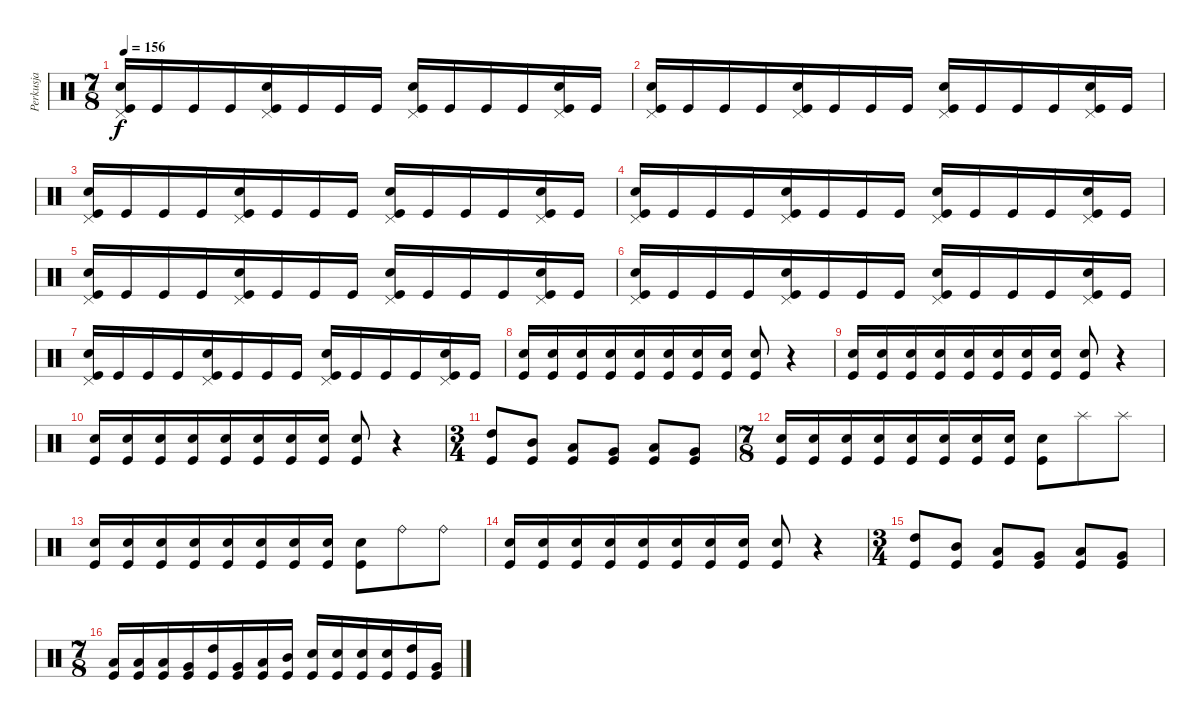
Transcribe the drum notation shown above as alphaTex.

\track ("Perkusja" "Perkusja") {instrument percussion}
\staff {score}
\articulation defaults
\ts (7 8)
\tempo 156
\clef neutral
\ks c
("Pedal Hi-Hat (hit)" "Snare (hit) 2" "Kick (hit)").16{dy f} "Kick (hit)".16 "Kick (hit)".16 "Kick (hit)".16 ("Pedal Hi-Hat (hit)" "Snare (hit) 2" "Kick (hit)").16 "Kick (hit)".16 "Kick (hit)".16 "Kick (hit)".16 ("Pedal Hi-Hat (hit)" "Snare (hit) 2" "Kick (hit)").16 "Kick (hit)".16 "Kick (hit)".16 "Kick (hit)".16 ("Pedal Hi-Hat (hit)" "Snare (hit) 2" "Kick (hit)").16 "Kick (hit)".16 |
("Pedal Hi-Hat (hit)" "Snare (hit) 2" "Kick (hit)").16 "Kick (hit)".16 "Kick (hit)".16 "Kick (hit)".16 ("Pedal Hi-Hat (hit)" "Snare (hit) 2" "Kick (hit)").16 "Kick (hit)".16 "Kick (hit)".16 "Kick (hit)".16 ("Pedal Hi-Hat (hit)" "Snare (hit) 2" "Kick (hit)").16 "Kick (hit)".16 "Kick (hit)".16 "Kick (hit)".16 ("Pedal Hi-Hat (hit)" "Snare (hit) 2" "Kick (hit)").16 "Kick (hit)".16 |
("Pedal Hi-Hat (hit)" "Snare (hit) 2" "Kick (hit)").16 "Kick (hit)".16 "Kick (hit)".16 "Kick (hit)".16 ("Pedal Hi-Hat (hit)" "Snare (hit) 2" "Kick (hit)").16 "Kick (hit)".16 "Kick (hit)".16 "Kick (hit)".16 ("Pedal Hi-Hat (hit)" "Snare (hit) 2" "Kick (hit)").16 "Kick (hit)".16 "Kick (hit)".16 "Kick (hit)".16 ("Pedal Hi-Hat (hit)" "Snare (hit) 2" "Kick (hit)").16 "Kick (hit)".16 |
("Pedal Hi-Hat (hit)" "Snare (hit) 2" "Kick (hit)").16 "Kick (hit)".16 "Kick (hit)".16 "Kick (hit)".16 ("Pedal Hi-Hat (hit)" "Snare (hit) 2" "Kick (hit)").16 "Kick (hit)".16 "Kick (hit)".16 "Kick (hit)".16 ("Pedal Hi-Hat (hit)" "Snare (hit) 2" "Kick (hit)").16 "Kick (hit)".16 "Kick (hit)".16 "Kick (hit)".16 ("Pedal Hi-Hat (hit)" "Snare (hit) 2" "Kick (hit)").16 "Kick (hit)".16 |
("Pedal Hi-Hat (hit)" "Snare (hit) 2" "Kick (hit)").16 "Kick (hit)".16 "Kick (hit)".16 "Kick (hit)".16 ("Pedal Hi-Hat (hit)" "Snare (hit) 2" "Kick (hit)").16 "Kick (hit)".16 "Kick (hit)".16 "Kick (hit)".16 ("Pedal Hi-Hat (hit)" "Snare (hit) 2" "Kick (hit)").16 "Kick (hit)".16 "Kick (hit)".16 "Kick (hit)".16 ("Pedal Hi-Hat (hit)" "Snare (hit) 2" "Kick (hit)").16 "Kick (hit)".16 |
("Pedal Hi-Hat (hit)" "Snare (hit) 2" "Kick (hit)").16 "Kick (hit)".16 "Kick (hit)".16 "Kick (hit)".16 ("Pedal Hi-Hat (hit)" "Snare (hit) 2" "Kick (hit)").16 "Kick (hit)".16 "Kick (hit)".16 "Kick (hit)".16 ("Pedal Hi-Hat (hit)" "Snare (hit) 2" "Kick (hit)").16 "Kick (hit)".16 "Kick (hit)".16 "Kick (hit)".16 ("Pedal Hi-Hat (hit)" "Snare (hit) 2" "Kick (hit)").16 "Kick (hit)".16 |
("Pedal Hi-Hat (hit)" "Snare (hit) 2" "Kick (hit)").16 "Kick (hit)".16 "Kick (hit)".16 "Kick (hit)".16 ("Pedal Hi-Hat (hit)" "Snare (hit) 2" "Kick (hit)").16 "Kick (hit)".16 "Kick (hit)".16 "Kick (hit)".16 ("Pedal Hi-Hat (hit)" "Snare (hit) 2" "Kick (hit)").16 "Kick (hit)".16 "Kick (hit)".16 "Kick (hit)".16 ("Pedal Hi-Hat (hit)" "Snare (hit) 2" "Kick (hit)").16 "Kick (hit)".16 |
("Snare (hit) 2" "Kick (hit)").16 ("Snare (hit) 2" "Kick (hit)").16 ("Snare (hit) 2" "Kick (hit)").16 ("Snare (hit) 2" "Kick (hit)").16 ("Snare (hit) 2" "Kick (hit)").16 ("Snare (hit) 2" "Kick (hit)").16 ("Snare (hit) 2" "Kick (hit)").16 ("Snare (hit) 2" "Kick (hit)").16 ("Snare (hit) 2" "Kick (hit)").8 r.4 |
("Snare (hit) 2" "Kick (hit)").16 ("Snare (hit) 2" "Kick (hit)").16 ("Snare (hit) 2" "Kick (hit)").16 ("Snare (hit) 2" "Kick (hit)").16 ("Snare (hit) 2" "Kick (hit)").16 ("Snare (hit) 2" "Kick (hit)").16 ("Snare (hit) 2" "Kick (hit)").16 ("Snare (hit) 2" "Kick (hit)").16 ("Snare (hit) 2" "Kick (hit)").8 r.4 |
("Snare (hit) 2" "Kick (hit)").16 ("Snare (hit) 2" "Kick (hit)").16 ("Snare (hit) 2" "Kick (hit)").16 ("Snare (hit) 2" "Kick (hit)").16 ("Snare (hit) 2" "Kick (hit)").16 ("Snare (hit) 2" "Kick (hit)").16 ("Snare (hit) 2" "Kick (hit)").16 ("Snare (hit) 2" "Kick (hit)").16 ("Snare (hit) 2" "Kick (hit)").8 r.4 |
\ts (3 4)
("High Tom (hit)" "Kick (hit)").8 ("Mid Tom (hit)" "Kick (hit)").8 ("Low Tom (hit)" "Kick (hit)").8 ("Very Low Tom (hit)" "Kick (hit)").8 ("Low Tom (hit)" "Kick (hit)").8 ("Very Low Tom (hit)" "Kick (hit)").8 |
\ts (7 8)
("Snare (hit) 2" "Kick (hit)").16 ("Snare (hit) 2" "Kick (hit)").16 ("Snare (hit) 2" "Kick (hit)").16 ("Snare (hit) 2" "Kick (hit)").16 ("Snare (hit) 2" "Kick (hit)").16 ("Snare (hit) 2" "Kick (hit)").16 ("Snare (hit) 2" "Kick (hit)").16 ("Snare (hit) 2" "Kick (hit)").16 ("Snare (hit) 2" "Kick (hit)").8 "Splash (hit)".8 "Splash (hit)".8 |
("Snare (hit) 2" "Kick (hit)").16 ("Snare (hit) 2" "Kick (hit)").16 ("Snare (hit) 2" "Kick (hit)").16 ("Snare (hit) 2" "Kick (hit)").16 ("Snare (hit) 2" "Kick (hit)").16 ("Snare (hit) 2" "Kick (hit)").16 ("Snare (hit) 2" "Kick (hit)").16 ("Snare (hit) 2" "Kick (hit)").16 ("Snare (hit) 2" "Kick (hit)").8 "Ride (bell)".8 "Ride (bell)".8 |
("Snare (hit) 2" "Kick (hit)").16 ("Snare (hit) 2" "Kick (hit)").16 ("Snare (hit) 2" "Kick (hit)").16 ("Snare (hit) 2" "Kick (hit)").16 ("Snare (hit) 2" "Kick (hit)").16 ("Snare (hit) 2" "Kick (hit)").16 ("Snare (hit) 2" "Kick (hit)").16 ("Snare (hit) 2" "Kick (hit)").16 ("Snare (hit) 2" "Kick (hit)").8 r.4 |
\ts (3 4)
("High Tom (hit)" "Kick (hit)").8 ("Mid Tom (hit)" "Kick (hit)").8 ("Low Tom (hit)" "Kick (hit)").8 ("Very Low Tom (hit)" "Kick (hit)").8 ("Low Tom (hit)" "Kick (hit)").8 ("Very Low Tom (hit)" "Kick (hit)").8 |
\ts (7 8)
("Low Floor Tom (hit)" "Kick (hit)").16 ("Low Tom (hit)" "Kick (hit)").16 ("Low Floor Tom (hit)" "Kick (hit)").16 ("Very Low Tom (hit)" "Kick (hit)").16 ("High Tom (hit)" "Kick (hit)").16 ("Very Low Tom (hit)" "Kick (hit)").16 ("Low Tom (hit)" "Kick (hit)").16 ("Mid Tom (hit)" "Kick (hit)").16 ("Snare (hit) 2" "Kick (hit)").16 ("Snare (hit) 2" "Kick (hit)").16 ("Snare (hit) 2" "Kick (hit)").16 ("Snare (hit) 2" "Kick (hit)").16 ("High Tom (hit)" "Kick (hit)").16 ("Very Low Tom (hit)" "Kick (hit)").16
